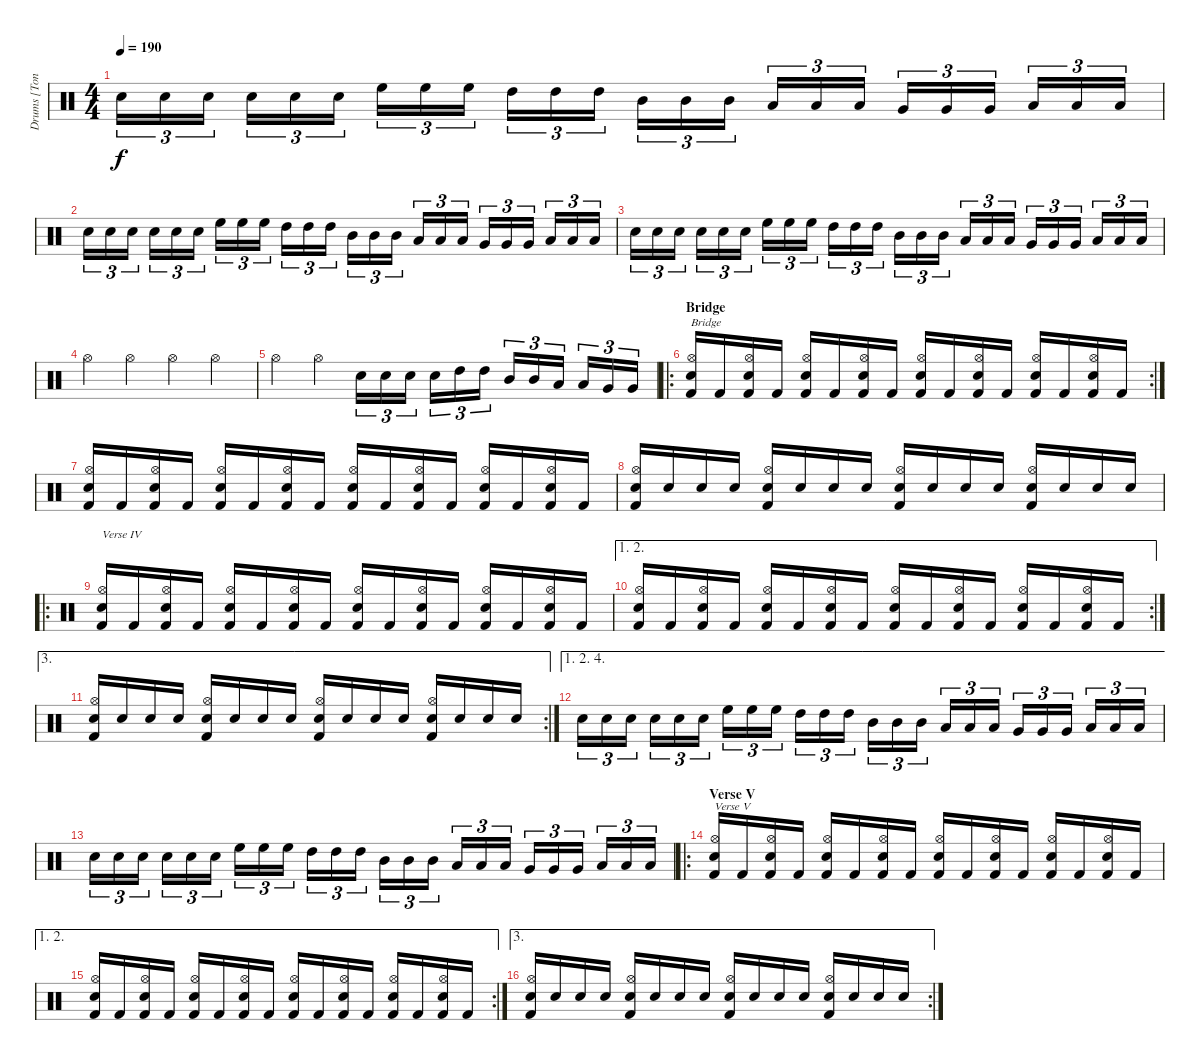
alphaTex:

\track ("Drums [Tony Laureano]" "Drums [Ton") {instrument percussion}
\staff {score}
\articulation defaults
\ts (4 4)
\tempo 190
\clef neutral
\ks c "Electric Snare (hit)".16{tu (3 2) dy f} "Electric Snare (hit)".16{tu (3 2)} "Electric Snare (hit)".16{tu (3 2)} "Electric Snare (hit)".16{tu (3 2)} "Electric Snare (hit)".16{tu (3 2)} "Electric Snare (hit)".16{tu (3 2)} "High Floor Tom (hit)".16{tu (3 2)} "High Floor Tom (hit)".16{tu (3 2)} "High Floor Tom (hit)".16{tu (3 2)} "High Tom (hit)".16{tu (3 2)} "High Tom (hit)".16{tu (3 2)} "High Tom (hit)".16{tu (3 2)} "Mid Tom (hit)".16{tu (3 2)} "Mid Tom (hit)".16{tu (3 2)} "Mid Tom (hit)".16{tu (3 2)} "Low Tom (hit)".16{tu (3 2)} "Low Tom (hit)".16{tu (3 2)} "Low Tom (hit)".16{tu (3 2)} "Very Low Tom (hit)".16{tu (3 2)} "Very Low Tom (hit)".16{tu (3 2)} "Very Low Tom (hit)".16{tu (3 2)} "Low Floor Tom (hit)".16{tu (3 2)} "Low Floor Tom (hit)".16{tu (3 2)} "Low Floor Tom (hit)".16{tu (3 2)}
|
"Electric Snare (hit)".16{tu (3 2)} "Electric Snare (hit)".16{tu (3 2)} "Electric Snare (hit)".16{tu (3 2)} "Electric Snare (hit)".16{tu (3 2)} "Electric Snare (hit)".16{tu (3 2)} "Electric Snare (hit)".16{tu (3 2)} "High Floor Tom (hit)".16{tu (3 2)} "High Floor Tom (hit)".16{tu (3 2)} "High Floor Tom (hit)".16{tu (3 2)} "High Tom (hit)".16{tu (3 2)} "High Tom (hit)".16{tu (3 2)} "High Tom (hit)".16{tu (3 2)} "Mid Tom (hit)".16{tu (3 2)} "Mid Tom (hit)".16{tu (3 2)} "Mid Tom (hit)".16{tu (3 2)} "Low Tom (hit)".16{tu (3 2)} "Low Tom (hit)".16{tu (3 2)} "Low Tom (hit)".16{tu (3 2)} "Very Low Tom (hit)".16{tu (3 2)} "Very Low Tom (hit)".16{tu (3 2)} "Very Low Tom (hit)".16{tu (3 2)} "Low Floor Tom (hit)".16{tu (3 2)} "Low Floor Tom (hit)".16{tu (3 2)} "Low Floor Tom (hit)".16{tu (3 2)} |
"Electric Snare (hit)".16{tu (3 2)} "Electric Snare (hit)".16{tu (3 2)} "Electric Snare (hit)".16{tu (3 2)} "Electric Snare (hit)".16{tu (3 2)} "Electric Snare (hit)".16{tu (3 2)} "Electric Snare (hit)".16{tu (3 2)} "High Floor Tom (hit)".16{tu (3 2)} "High Floor Tom (hit)".16{tu (3 2)} "High Floor Tom (hit)".16{tu (3 2)} "High Tom (hit)".16{tu (3 2)} "High Tom (hit)".16{tu (3 2)} "High Tom (hit)".16{tu (3 2)} "Mid Tom (hit)".16{tu (3 2)} "Mid Tom (hit)".16{tu (3 2)} "Mid Tom (hit)".16{tu (3 2)} "Low Tom (hit)".16{tu (3 2)} "Low Tom (hit)".16{tu (3 2)} "Low Tom (hit)".16{tu (3 2)} "Very Low Tom (hit)".16{tu (3 2)} "Very Low Tom (hit)".16{tu (3 2)} "Very Low Tom (hit)".16{tu (3 2)} "Low Floor Tom (hit)".16{tu (3 2)} "Low Floor Tom (hit)".16{tu (3 2)} "Low Floor Tom (hit)".16{tu (3 2)} |
"Hi-Hat (open)".4 "Hi-Hat (open)".4 "Hi-Hat (open)".4 "Hi-Hat (open)".4 |
"Hi-Hat (open)".4 "Hi-Hat (open)".4 "Electric Snare (hit)".16{tu (3 2)} "Electric Snare (hit)".16{tu (3 2)} "Electric Snare (hit)".16{tu (3 2)} "Electric Snare (hit)".16{tu (3 2)} "High Tom (hit)".16{tu (3 2)} "High Tom (hit)".16{tu (3 2)} "Mid Tom (hit)".16{tu (3 2)} "Mid Tom (hit)".16{tu (3 2)} "Low Tom (hit)".16{tu (3 2)} "Low Tom (hit)".16{tu (3 2)} "Very Low Tom (hit)".16{tu (3 2)} "Very Low Tom (hit)".16{tu (3 2)} |
\ro
\rc 2
\section ("" "Bridge")
("Hi-Hat (open)" "Electric Snare (hit)" "Kick (hit) 2").16{txt "Bridge"} "Kick (hit) 2".16 ("Hi-Hat (open)" "Electric Snare (hit)" "Kick (hit) 2").16 "Kick (hit) 2".16 ("Hi-Hat (open)" "Electric Snare (hit)" "Kick (hit) 2").16 "Kick (hit) 2".16 ("Hi-Hat (open)" "Electric Snare (hit)" "Kick (hit) 2").16 "Kick (hit) 2".16 ("Hi-Hat (open)" "Electric Snare (hit)" "Kick (hit) 2").16 "Kick (hit) 2".16 ("Hi-Hat (open)" "Electric Snare (hit)" "Kick (hit) 2").16 "Kick (hit) 2".16 ("Hi-Hat (open)" "Electric Snare (hit)" "Kick (hit) 2").16 "Kick (hit) 2".16 ("Hi-Hat (open)" "Electric Snare (hit)" "Kick (hit) 2").16 "Kick (hit) 2".16 |
("Hi-Hat (open)" "Electric Snare (hit)" "Kick (hit) 2").16 "Kick (hit) 2".16 ("Hi-Hat (open)" "Electric Snare (hit)" "Kick (hit) 2").16 "Kick (hit) 2".16 ("Hi-Hat (open)" "Electric Snare (hit)" "Kick (hit) 2").16 "Kick (hit) 2".16 ("Hi-Hat (open)" "Electric Snare (hit)" "Kick (hit) 2").16 "Kick (hit) 2".16 ("Hi-Hat (open)" "Electric Snare (hit)" "Kick (hit) 2").16 "Kick (hit) 2".16 ("Hi-Hat (open)" "Electric Snare (hit)" "Kick (hit) 2").16 "Kick (hit) 2".16 ("Hi-Hat (open)" "Electric Snare (hit)" "Kick (hit) 2").16 "Kick (hit) 2".16 ("Hi-Hat (open)" "Electric Snare (hit)" "Kick (hit) 2").16 "Kick (hit) 2".16 |
("Hi-Hat (open)" "Electric Snare (hit)" "Kick (hit) 2").16 "Electric Snare (hit)".16 "Electric Snare (hit)".16 "Electric Snare (hit)".16 ("Hi-Hat (open)" "Electric Snare (hit)" "Kick (hit) 2").16 "Electric Snare (hit)".16 "Electric Snare (hit)".16 "Electric Snare (hit)".16 ("Hi-Hat (open)" "Electric Snare (hit)" "Kick (hit) 2").16 "Electric Snare (hit)".16 "Electric Snare (hit)".16 "Electric Snare (hit)".16 ("Hi-Hat (open)" "Electric Snare (hit)" "Kick (hit) 2").16 "Electric Snare (hit)".16 "Electric Snare (hit)".16 "Electric Snare (hit)".16 |
\ro
("Hi-Hat (open)" "Electric Snare (hit)" "Kick (hit) 2").16{txt "Verse IV"} "Kick (hit) 2".16 ("Hi-Hat (open)" "Electric Snare (hit)" "Kick (hit) 2").16 "Kick (hit) 2".16 ("Hi-Hat (open)" "Electric Snare (hit)" "Kick (hit) 2").16 "Kick (hit) 2".16 ("Hi-Hat (open)" "Electric Snare (hit)" "Kick (hit) 2").16 "Kick (hit) 2".16 ("Hi-Hat (open)" "Electric Snare (hit)" "Kick (hit) 2").16 "Kick (hit) 2".16 ("Hi-Hat (open)" "Electric Snare (hit)" "Kick (hit) 2").16 "Kick (hit) 2".16 ("Hi-Hat (open)" "Electric Snare (hit)" "Kick (hit) 2").16 "Kick (hit) 2".16 ("Hi-Hat (open)" "Electric Snare (hit)" "Kick (hit) 2").16 "Kick (hit) 2".16 |
\ae (1 2)
\rc 2
("Hi-Hat (open)" "Electric Snare (hit)" "Kick (hit) 2").16 "Kick (hit) 2".16 ("Hi-Hat (open)" "Electric Snare (hit)" "Kick (hit) 2").16 "Kick (hit) 2".16 ("Hi-Hat (open)" "Electric Snare (hit)" "Kick (hit) 2").16 "Kick (hit) 2".16 ("Hi-Hat (open)" "Electric Snare (hit)" "Kick (hit) 2").16 "Kick (hit) 2".16 ("Hi-Hat (open)" "Electric Snare (hit)" "Kick (hit) 2").16 "Kick (hit) 2".16 ("Hi-Hat (open)" "Electric Snare (hit)" "Kick (hit) 2").16 "Kick (hit) 2".16 ("Hi-Hat (open)" "Electric Snare (hit)" "Kick (hit) 2").16 "Kick (hit) 2".16 ("Hi-Hat (open)" "Electric Snare (hit)" "Kick (hit) 2").16 "Kick (hit) 2".16 |
\ae 3
\rc 2
("Hi-Hat (open)" "Electric Snare (hit)" "Kick (hit) 2").16 "Electric Snare (hit)".16 "Electric Snare (hit)".16 "Electric Snare (hit)".16 ("Hi-Hat (open)" "Electric Snare (hit)" "Kick (hit) 2").16 "Electric Snare (hit)".16 "Electric Snare (hit)".16 "Electric Snare (hit)".16 ("Hi-Hat (open)" "Electric Snare (hit)" "Kick (hit) 2").16 "Electric Snare (hit)".16 "Electric Snare (hit)".16 "Electric Snare (hit)".16 ("Hi-Hat (open)" "Electric Snare (hit)" "Kick (hit) 2").16 "Electric Snare (hit)".16 "Electric Snare (hit)".16 "Electric Snare (hit)".16 |
\ae (1 2 4)
"Electric Snare (hit)".16{tu (3 2)} "Electric Snare (hit)".16{tu (3 2)} "Electric Snare (hit)".16{tu (3 2)} "Electric Snare (hit)".16{tu (3 2)} "Electric Snare (hit)".16{tu (3 2)} "Electric Snare (hit)".16{tu (3 2)} "High Floor Tom (hit)".16{tu (3 2)} "High Floor Tom (hit)".16{tu (3 2)} "High Floor Tom (hit)".16{tu (3 2)} "High Tom (hit)".16{tu (3 2)} "High Tom (hit)".16{tu (3 2)} "High Tom (hit)".16{tu (3 2)} "Mid Tom (hit)".16{tu (3 2)} "Mid Tom (hit)".16{tu (3 2)} "Mid Tom (hit)".16{tu (3 2)} "Low Tom (hit)".16{tu (3 2)} "Low Tom (hit)".16{tu (3 2)} "Low Tom (hit)".16{tu (3 2)} "Very Low Tom (hit)".16{tu (3 2)} "Very Low Tom (hit)".16{tu (3 2)} "Very Low Tom (hit)".16{tu (3 2)} "Low Floor Tom (hit)".16{tu (3 2)} "Low Floor Tom (hit)".16{tu (3 2)} "Low Floor Tom (hit)".16{tu (3 2)} |
"Electric Snare (hit)".16{tu (3 2)} "Electric Snare (hit)".16{tu (3 2)} "Electric Snare (hit)".16{tu (3 2)} "Electric Snare (hit)".16{tu (3 2)} "Electric Snare (hit)".16{tu (3 2)} "Electric Snare (hit)".16{tu (3 2)} "High Floor Tom (hit)".16{tu (3 2)} "High Floor Tom (hit)".16{tu (3 2)} "High Floor Tom (hit)".16{tu (3 2)} "High Tom (hit)".16{tu (3 2)} "High Tom (hit)".16{tu (3 2)} "High Tom (hit)".16{tu (3 2)} "Mid Tom (hit)".16{tu (3 2)} "Mid Tom (hit)".16{tu (3 2)} "Mid Tom (hit)".16{tu (3 2)} "Low Tom (hit)".16{tu (3 2)} "Low Tom (hit)".16{tu (3 2)} "Low Tom (hit)".16{tu (3 2)} "Very Low Tom (hit)".16{tu (3 2)} "Very Low Tom (hit)".16{tu (3 2)} "Very Low Tom (hit)".16{tu (3 2)} "Low Floor Tom (hit)".16{tu (3 2)} "Low Floor Tom (hit)".16{tu (3 2)} "Low Floor Tom (hit)".16{tu (3 2)} |
\ro
\section ("" "Verse V")
("Hi-Hat (open)" "Electric Snare (hit)" "Kick (hit) 2").16{txt "Verse V"} "Kick (hit) 2".16 ("Hi-Hat (open)" "Electric Snare (hit)" "Kick (hit) 2").16 "Kick (hit) 2".16 ("Hi-Hat (open)" "Electric Snare (hit)" "Kick (hit) 2").16 "Kick (hit) 2".16 ("Hi-Hat (open)" "Electric Snare (hit)" "Kick (hit) 2").16 "Kick (hit) 2".16 ("Hi-Hat (open)" "Electric Snare (hit)" "Kick (hit) 2").16 "Kick (hit) 2".16 ("Hi-Hat (open)" "Electric Snare (hit)" "Kick (hit) 2").16 "Kick (hit) 2".16 ("Hi-Hat (open)" "Electric Snare (hit)" "Kick (hit) 2").16 "Kick (hit) 2".16 ("Hi-Hat (open)" "Electric Snare (hit)" "Kick (hit) 2").16 "Kick (hit) 2".16 |
\ae (1 2)
\rc 2
("Hi-Hat (open)" "Electric Snare (hit)" "Kick (hit) 2").16 "Kick (hit) 2".16 ("Hi-Hat (open)" "Electric Snare (hit)" "Kick (hit) 2").16 "Kick (hit) 2".16 ("Hi-Hat (open)" "Electric Snare (hit)" "Kick (hit) 2").16 "Kick (hit) 2".16 ("Hi-Hat (open)" "Electric Snare (hit)" "Kick (hit) 2").16 "Kick (hit) 2".16 ("Hi-Hat (open)" "Electric Snare (hit)" "Kick (hit) 2").16 "Kick (hit) 2".16 ("Hi-Hat (open)" "Electric Snare (hit)" "Kick (hit) 2").16 "Kick (hit) 2".16 ("Hi-Hat (open)" "Electric Snare (hit)" "Kick (hit) 2").16 "Kick (hit) 2".16 ("Hi-Hat (open)" "Electric Snare (hit)" "Kick (hit) 2").16 "Kick (hit) 2".16 |
\ae 3
\rc 2
("Hi-Hat (open)" "Electric Snare (hit)" "Kick (hit) 2").16 "Electric Snare (hit)".16 "Electric Snare (hit)".16 "Electric Snare (hit)".16 ("Hi-Hat (open)" "Electric Snare (hit)" "Kick (hit) 2").16 "Electric Snare (hit)".16 "Electric Snare (hit)".16 "Electric Snare (hit)".16 ("Hi-Hat (open)" "Electric Snare (hit)" "Kick (hit) 2").16 "Electric Snare (hit)".16 "Electric Snare (hit)".16 "Electric Snare (hit)".16 ("Hi-Hat (open)" "Electric Snare (hit)" "Kick (hit) 2").16 "Electric Snare (hit)".16 "Electric Snare (hit)".16 "Electric Snare (hit)".16
